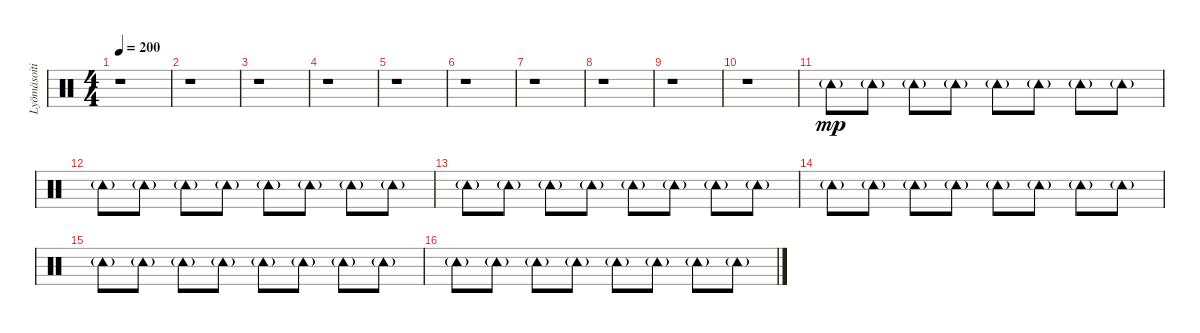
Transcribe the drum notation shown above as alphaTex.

\track ("Lyömäsoitin" "Lyömäsoiti") {instrument percussion}
\staff {score}
\articulation defaults
\ts (4 4)
\tempo 200
\clef neutral
\ks c
r.1{dy mp} |
r.1 |
r.1 |
r.1 |
r.1 |
r.1 |
r.1 |
r.1 |
r.1 |
r.1 |
"Tambourine (hit)"{g}.8 "Tambourine (hit)"{g}.8 "Tambourine (hit)"{g}.8 "Tambourine (hit)"{g}.8 "Tambourine (hit)"{g}.8 "Tambourine (hit)"{g}.8 "Tambourine (hit)"{g}.8 "Tambourine (hit)"{g}.8 |
"Tambourine (hit)"{g}.8 "Tambourine (hit)"{g}.8 "Tambourine (hit)"{g}.8 "Tambourine (hit)"{g}.8 "Tambourine (hit)"{g}.8 "Tambourine (hit)"{g}.8 "Tambourine (hit)"{g}.8 "Tambourine (hit)"{g}.8 |
"Tambourine (hit)"{g}.8 "Tambourine (hit)"{g}.8 "Tambourine (hit)"{g}.8 "Tambourine (hit)"{g}.8 "Tambourine (hit)"{g}.8 "Tambourine (hit)"{g}.8 "Tambourine (hit)"{g}.8 "Tambourine (hit)"{g}.8 |
"Tambourine (hit)"{g}.8 "Tambourine (hit)"{g}.8 "Tambourine (hit)"{g}.8 "Tambourine (hit)"{g}.8 "Tambourine (hit)"{g}.8 "Tambourine (hit)"{g}.8 "Tambourine (hit)"{g}.8 "Tambourine (hit)"{g}.8 |
"Tambourine (hit)"{g}.8 "Tambourine (hit)"{g}.8 "Tambourine (hit)"{g}.8 "Tambourine (hit)"{g}.8 "Tambourine (hit)"{g}.8 "Tambourine (hit)"{g}.8 "Tambourine (hit)"{g}.8 "Tambourine (hit)"{g}.8 |
"Tambourine (hit)"{g}.8 "Tambourine (hit)"{g}.8 "Tambourine (hit)"{g}.8 "Tambourine (hit)"{g}.8 "Tambourine (hit)"{g}.8 "Tambourine (hit)"{g}.8 "Tambourine (hit)"{g}.8 "Tambourine (hit)"{g}.8
